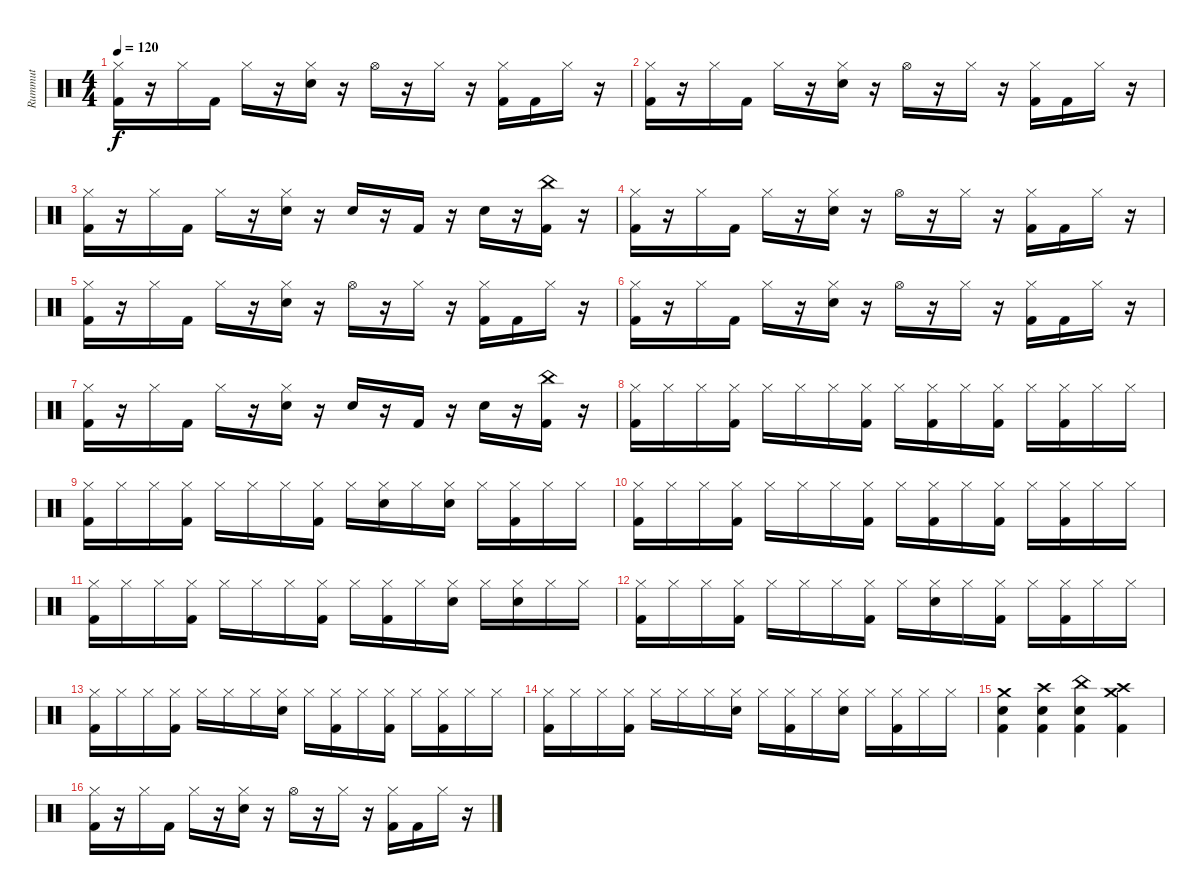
\track ("Rummut" "Rummut") {instrument percussion}
\staff {score}
\articulation defaults
\ts (4 4)
\tempo 120
\clef neutral
\ks c
("Hi-Hat (closed)" "Kick (hit) 2").16{dy f} r.16 "Hi-Hat (closed)".16 "Kick (hit) 2".16 "Hi-Hat (closed)".16 r.16 ("Hi-Hat (closed)" "Snare (hit) 2").16 r.16 "Hi-Hat (open)".16 r.16 "Hi-Hat (closed)".16 r.16 ("Hi-Hat (closed)" "Kick (hit) 2").16 "Kick (hit) 2".16 "Hi-Hat (closed)".16 r.16 |
("Hi-Hat (closed)" "Kick (hit) 2").16 r.16 "Hi-Hat (closed)".16 "Kick (hit) 2".16 "Hi-Hat (closed)".16 r.16 ("Hi-Hat (closed)" "Snare (hit) 2").16 r.16 "Hi-Hat (open)".16 r.16 "Hi-Hat (closed)".16 r.16 ("Hi-Hat (closed)" "Kick (hit) 2").16 "Kick (hit) 2".16 "Hi-Hat (closed)".16 r.16 |
("Hi-Hat (closed)" "Kick (hit) 2").16 r.16 "Hi-Hat (closed)".16 "Kick (hit) 2".16 "Hi-Hat (closed)".16 r.16 ("Hi-Hat (closed)" "Snare (hit) 2").16 r.16 "Snare (hit) 2".16 r.16 "Kick (hit) 2".16 r.16 "Snare (hit) 2".16 r.16 ("China (hit)" "Kick (hit) 2").16 r.16 |
("Hi-Hat (closed)" "Kick (hit) 2").16 r.16 "Hi-Hat (closed)".16 "Kick (hit) 2".16 "Hi-Hat (closed)".16 r.16 ("Hi-Hat (closed)" "Snare (hit) 2").16 r.16 "Hi-Hat (open)".16 r.16 "Hi-Hat (closed)".16 r.16 ("Hi-Hat (closed)" "Kick (hit) 2").16 "Kick (hit) 2".16 "Hi-Hat (closed)".16 r.16 |
("Hi-Hat (closed)" "Kick (hit) 2").16 r.16 "Hi-Hat (closed)".16 "Kick (hit) 2".16 "Hi-Hat (closed)".16 r.16 ("Hi-Hat (closed)" "Snare (hit) 2").16 r.16 "Hi-Hat (open)".16 r.16 "Hi-Hat (closed)".16 r.16 ("Hi-Hat (closed)" "Kick (hit) 2").16 "Kick (hit) 2".16 "Hi-Hat (closed)".16 r.16 |
("Hi-Hat (closed)" "Kick (hit) 2").16 r.16 "Hi-Hat (closed)".16 "Kick (hit) 2".16 "Hi-Hat (closed)".16 r.16 ("Hi-Hat (closed)" "Snare (hit) 2").16 r.16 "Hi-Hat (open)".16 r.16 "Hi-Hat (closed)".16 r.16 ("Hi-Hat (closed)" "Kick (hit) 2").16 "Kick (hit) 2".16 "Hi-Hat (closed)".16 r.16 |
("Hi-Hat (closed)" "Kick (hit) 2").16 r.16 "Hi-Hat (closed)".16 "Kick (hit) 2".16 "Hi-Hat (closed)".16 r.16 ("Hi-Hat (closed)" "Snare (hit) 2").16 r.16 "Snare (hit) 2".16 r.16 "Kick (hit) 2".16 r.16 "Snare (hit) 2".16 r.16 ("China (hit)" "Kick (hit) 2").16 r.16 |
("Hi-Hat (closed)" "Kick (hit) 2").16 "Hi-Hat (closed)".16 "Hi-Hat (closed)".16 ("Hi-Hat (closed)" "Kick (hit) 2").16 "Hi-Hat (closed)".16 "Hi-Hat (closed)".16 "Hi-Hat (closed)".16 ("Hi-Hat (closed)" "Kick (hit) 2").16 "Hi-Hat (closed)".16 ("Hi-Hat (closed)" "Kick (hit) 2").16 "Hi-Hat (closed)".16 ("Hi-Hat (closed)" "Kick (hit) 2").16 "Hi-Hat (closed)".16 ("Hi-Hat (closed)" "Kick (hit) 2").16 "Hi-Hat (closed)".16 "Hi-Hat (closed)".16 |
("Hi-Hat (closed)" "Kick (hit) 2").16 "Hi-Hat (closed)".16 "Hi-Hat (closed)".16 ("Hi-Hat (closed)" "Kick (hit) 2").16 "Hi-Hat (closed)".16 "Hi-Hat (closed)".16 "Hi-Hat (closed)".16 ("Hi-Hat (closed)" "Kick (hit) 2").16 "Hi-Hat (closed)".16 ("Hi-Hat (closed)" "Snare (hit) 2").16 "Hi-Hat (closed)".16 ("Hi-Hat (closed)" "Snare (hit) 2").16 "Hi-Hat (closed)".16 ("Hi-Hat (closed)" "Kick (hit) 2").16 "Hi-Hat (closed)".16 "Hi-Hat (closed)".16 |
("Hi-Hat (closed)" "Kick (hit) 2").16 "Hi-Hat (closed)".16 "Hi-Hat (closed)".16 ("Hi-Hat (closed)" "Kick (hit) 2").16 "Hi-Hat (closed)".16 "Hi-Hat (closed)".16 "Hi-Hat (closed)".16 ("Hi-Hat (closed)" "Kick (hit) 2").16 "Hi-Hat (closed)".16 ("Hi-Hat (closed)" "Kick (hit) 2").16 "Hi-Hat (closed)".16 ("Hi-Hat (closed)" "Kick (hit) 2").16 "Hi-Hat (closed)".16 ("Hi-Hat (closed)" "Kick (hit) 2").16 "Hi-Hat (closed)".16 "Hi-Hat (closed)".16 |
("Hi-Hat (closed)" "Kick (hit) 2").16 "Hi-Hat (closed)".16 "Hi-Hat (closed)".16 ("Hi-Hat (closed)" "Kick (hit) 2").16 "Hi-Hat (closed)".16 "Hi-Hat (closed)".16 "Hi-Hat (closed)".16 ("Hi-Hat (closed)" "Kick (hit) 2").16 "Hi-Hat (closed)".16 ("Hi-Hat (closed)" "Kick (hit) 2").16 "Hi-Hat (closed)".16 ("Hi-Hat (closed)" "Snare (hit) 2").16 "Hi-Hat (closed)".16 ("Hi-Hat (closed)" "Snare (hit) 2").16 "Hi-Hat (closed)".16 "Hi-Hat (closed)".16 |
("Hi-Hat (closed)" "Kick (hit) 2").16 "Hi-Hat (closed)".16 "Hi-Hat (closed)".16 ("Hi-Hat (closed)" "Kick (hit) 2").16 "Hi-Hat (closed)".16 "Hi-Hat (closed)".16 "Hi-Hat (closed)".16 ("Hi-Hat (closed)" "Kick (hit) 2").16 "Hi-Hat (closed)".16 ("Hi-Hat (closed)" "Snare (hit) 2").16 "Hi-Hat (closed)".16 ("Hi-Hat (closed)" "Kick (hit) 2").16 "Hi-Hat (closed)".16 ("Hi-Hat (closed)" "Kick (hit) 2").16 "Hi-Hat (closed)".16 "Hi-Hat (closed)".16 |
("Hi-Hat (closed)" "Kick (hit) 2").16 "Hi-Hat (closed)".16 "Hi-Hat (closed)".16 ("Hi-Hat (closed)" "Kick (hit) 2").16 "Hi-Hat (closed)".16 "Hi-Hat (closed)".16 "Hi-Hat (closed)".16 ("Hi-Hat (closed)" "Snare (hit) 2").16 "Hi-Hat (closed)".16 ("Hi-Hat (closed)" "Kick (hit) 2").16 "Hi-Hat (closed)".16 ("Hi-Hat (closed)" "Kick (hit) 2").16 "Hi-Hat (closed)".16 ("Hi-Hat (closed)" "Kick (hit) 2").16 "Hi-Hat (closed)".16 "Hi-Hat (closed)".16 |
("Hi-Hat (closed)" "Kick (hit) 2").16 "Hi-Hat (closed)".16 "Hi-Hat (closed)".16 ("Hi-Hat (closed)" "Kick (hit) 2").16 "Hi-Hat (closed)".16 "Hi-Hat (closed)".16 "Hi-Hat (closed)".16 ("Hi-Hat (closed)" "Snare (hit) 2").16 "Hi-Hat (closed)".16 ("Hi-Hat (closed)" "Kick (hit) 2").16 "Hi-Hat (closed)".16 ("Hi-Hat (closed)" "Snare (hit) 2").16 "Hi-Hat (closed)".16 ("Hi-Hat (closed)" "Kick (hit) 2").16 "Hi-Hat (closed)".16 "Hi-Hat (closed)".16 |
("Crash medium (hit)" "Snare (hit) 2" "Kick (hit) 2").4 ("Crash high (hit)" "Snare (hit) 2" "Kick (hit) 2").4 ("China (hit)" "Snare (hit) 2" "Kick (hit) 2").4 ("Crash medium (hit)" "Crash high (hit)" "Kick (hit) 2").4 |
("Hi-Hat (closed)" "Kick (hit) 2").16 r.16 "Hi-Hat (closed)".16 "Kick (hit) 2".16 "Hi-Hat (closed)".16 r.16 ("Hi-Hat (closed)" "Snare (hit) 2").16 r.16 "Hi-Hat (open)".16 r.16 "Hi-Hat (closed)".16 r.16 ("Hi-Hat (closed)" "Kick (hit) 2").16 "Kick (hit) 2".16 "Hi-Hat (closed)".16 r.16
